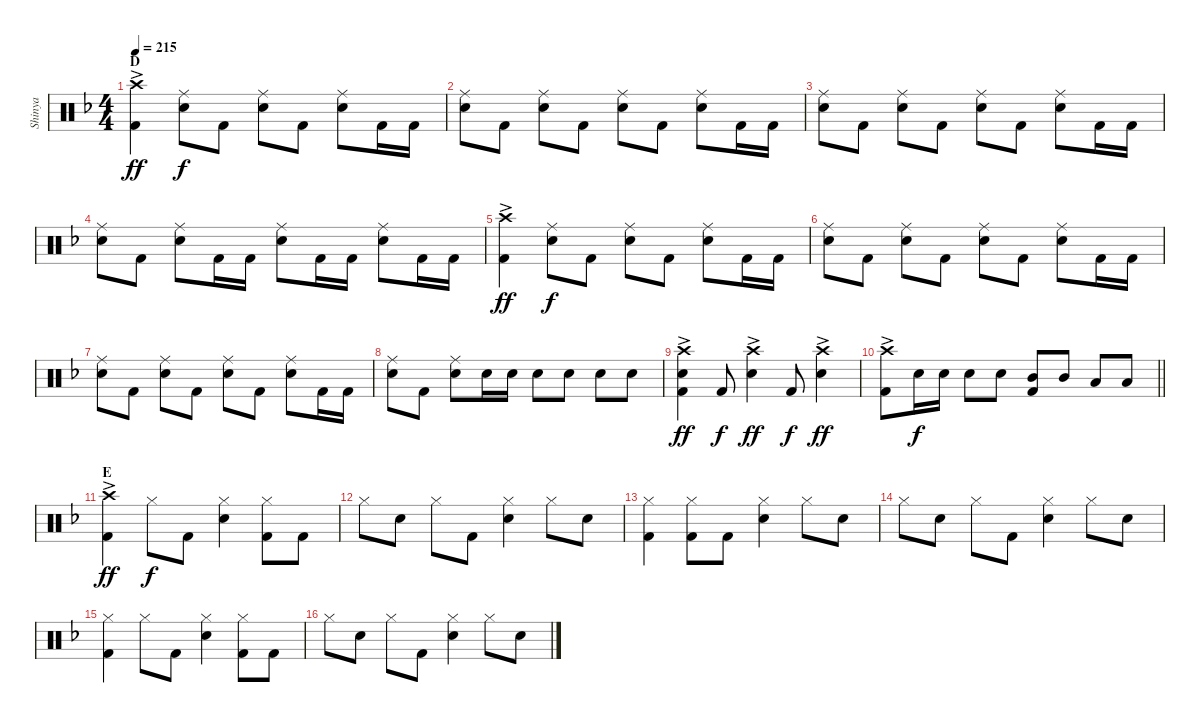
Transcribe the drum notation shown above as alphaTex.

\track ("Shinya" "Shinya") {instrument percussion}
\staff {score}
\articulation defaults
\ts (4 4)
\section ("" "D")
\tempo 215
\clef neutral
\ks f
("Crash high (hit)"{ac} "Kick (hit) 2").4{dy ff} ("Ride (middle)" "Snare (hit) 2").8{dy f} "Kick (hit) 2".8 ("Ride (middle)" "Snare (hit) 2").8 "Kick (hit) 2".8 ("Ride (middle)" "Snare (hit) 2").8 "Kick (hit) 2".16 "Kick (hit) 2".16 |
("Ride (middle)" "Snare (hit) 2").8 "Kick (hit) 2".8 ("Ride (middle)" "Snare (hit) 2").8 "Kick (hit) 2".8 ("Ride (middle)" "Snare (hit) 2").8 "Kick (hit) 2".8 ("Ride (middle)" "Snare (hit) 2").8 "Kick (hit) 2".16 "Kick (hit) 2".16 |
("Ride (middle)" "Snare (hit) 2").8 "Kick (hit) 2".8 ("Ride (middle)" "Snare (hit) 2").8 "Kick (hit) 2".8 ("Ride (middle)" "Snare (hit) 2").8 "Kick (hit) 2".8 ("Ride (middle)" "Snare (hit) 2").8 "Kick (hit) 2".16 "Kick (hit) 2".16 |
("Ride (middle)" "Snare (hit) 2").8 "Kick (hit) 2".8 ("Ride (middle)" "Snare (hit) 2").8 "Kick (hit) 2".16 "Kick (hit) 2".16 ("Ride (middle)" "Snare (hit) 2").8 "Kick (hit) 2".16 "Kick (hit) 2".16 ("Ride (middle)" "Snare (hit) 2").8 "Kick (hit) 2".16 "Kick (hit) 2".16 |
("Crash high (hit)"{ac} "Kick (hit) 2").4{dy ff} ("Ride (middle)" "Snare (hit) 2").8{dy f} "Kick (hit) 2".8 ("Ride (middle)" "Snare (hit) 2").8 "Kick (hit) 2".8 ("Ride (middle)" "Snare (hit) 2").8 "Kick (hit) 2".16 "Kick (hit) 2".16 |
("Ride (middle)" "Snare (hit) 2").8 "Kick (hit) 2".8 ("Ride (middle)" "Snare (hit) 2").8 "Kick (hit) 2".8 ("Ride (middle)" "Snare (hit) 2").8 "Kick (hit) 2".8 ("Ride (middle)" "Snare (hit) 2").8 "Kick (hit) 2".16 "Kick (hit) 2".16 |
("Ride (middle)" "Snare (hit) 2").8 "Kick (hit) 2".8 ("Ride (middle)" "Snare (hit) 2").8 "Kick (hit) 2".8 ("Ride (middle)" "Snare (hit) 2").8 "Kick (hit) 2".8 ("Ride (middle)" "Snare (hit) 2").8 "Kick (hit) 2".16 "Kick (hit) 2".16 |
("Ride (middle)" "Snare (hit) 2").8 "Kick (hit) 2".8 ("Ride (middle)" "Snare (hit) 2").8 "Snare (hit) 2".16 "Snare (hit) 2".16 "Snare (hit) 2".8 "Snare (hit) 2".8 "Snare (hit) 2".8 "Snare (hit) 2".8 |
("Crash high (hit)"{ac} "Snare (hit) 2" "Kick (hit) 2").4{dy ff} "Kick (hit) 2".8{dy f} ("Crash high (hit)"{ac} "Snare (hit) 2").4{dy ff} "Kick (hit) 2".8{dy f} ("Crash high (hit)"{ac} "Snare (hit) 2").4{dy ff} |
\barLineRight lightlight
("Crash high (hit)"{ac} "Kick (hit) 2").8 "Snare (hit) 2".16{dy f} "Snare (hit) 2".16 "Snare (hit) 2".8 "Snare (hit) 2".8 ("Mid Tom (hit)" "Kick (hit) 2").8 "Mid Tom (hit)".8 "Low Tom (hit)".8 "Low Tom (hit)".8 |
\section ("" "E")
("Crash high (hit)"{ac} "Kick (hit) 2").4{dy ff} "Hi-Hat (closed)".8{dy f} "Kick (hit) 2".8 ("Hi-Hat (closed)" "Snare (hit) 2").4 ("Hi-Hat (closed)" "Kick (hit) 2").8 "Kick (hit) 2".8 |
"Hi-Hat (closed)".8 "Snare (hit) 2".8 "Hi-Hat (closed)".8 "Kick (hit) 2".8 ("Hi-Hat (closed)" "Snare (hit) 2").4 "Hi-Hat (closed)".8 "Snare (hit) 2".8 |
("Hi-Hat (closed)" "Kick (hit) 2").4 ("Hi-Hat (closed)" "Kick (hit) 2").8 "Kick (hit) 2".8 ("Hi-Hat (closed)" "Snare (hit) 2").4 "Hi-Hat (closed)".8 "Snare (hit) 2".8 |
"Hi-Hat (closed)".8 "Snare (hit) 2".8 "Hi-Hat (closed)".8 "Kick (hit) 2".8 ("Hi-Hat (closed)" "Snare (hit) 2").4 "Hi-Hat (closed)".8 "Snare (hit) 2".8 |
("Hi-Hat (closed)" "Kick (hit) 2").4 "Hi-Hat (closed)".8 "Kick (hit) 2".8 ("Hi-Hat (closed)" "Snare (hit) 2").4 ("Hi-Hat (closed)" "Kick (hit) 2").8 "Kick (hit) 2".8 |
"Hi-Hat (closed)".8 "Snare (hit) 2".8 "Hi-Hat (closed)".8 "Kick (hit) 2".8 ("Hi-Hat (closed)" "Snare (hit) 2").4 "Hi-Hat (closed)".8 "Snare (hit) 2".8
